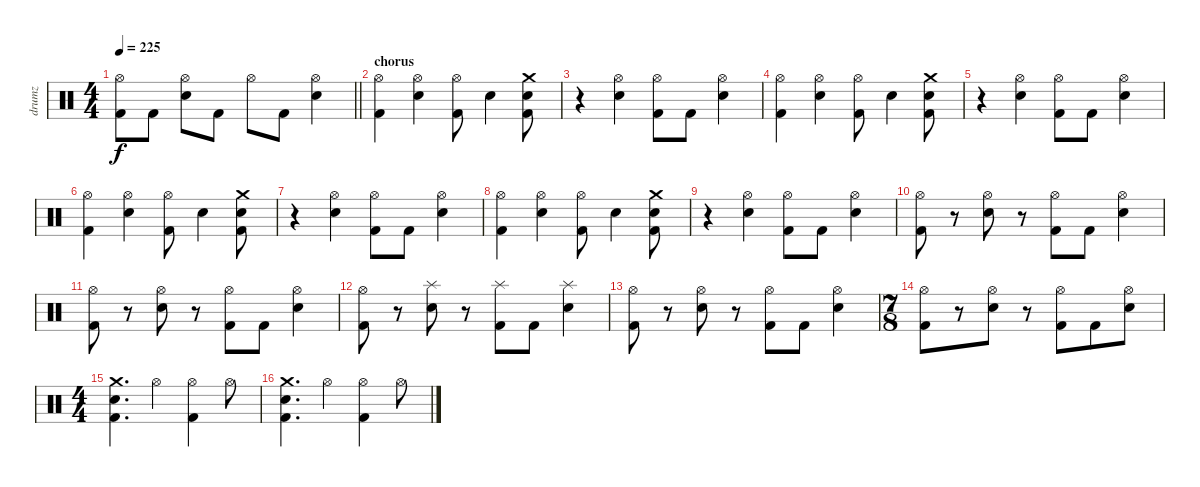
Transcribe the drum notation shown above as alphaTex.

\track ("drumz" "drumz") {instrument percussion}
\staff {score}
\articulation defaults
\ts (4 4)
\tempo 225
\clef neutral
\barLineRight lightlight
\ks c
("Hi-Hat (open)" "Kick (hit) 2").8{dy f} "Kick (hit) 2".8 ("Hi-Hat (open)" "Electric Snare (hit)").8 "Kick (hit) 2".8 "Hi-Hat (open)".8 "Kick (hit) 2".8 ("Hi-Hat (open)" "Electric Snare (hit)").4 |
\section ("" "chorus")
("Hi-Hat (open)" "Kick (hit) 2").4 ("Hi-Hat (open)" "Electric Snare (hit)").4 ("Hi-Hat (open)" "Kick (hit) 2").8 "Electric Snare (hit)".4 ("Crash medium (hit)" "Electric Snare (hit)" "Kick (hit) 2").8 |
r.4 ("Hi-Hat (open)" "Electric Snare (hit)").4 ("Hi-Hat (open)" "Kick (hit) 2").8 "Kick (hit) 2".8 ("Hi-Hat (open)" "Electric Snare (hit)").4 |
("Hi-Hat (open)" "Kick (hit) 2").4 ("Hi-Hat (open)" "Electric Snare (hit)").4 ("Hi-Hat (open)" "Kick (hit) 2").8 "Electric Snare (hit)".4 ("Crash medium (hit)" "Electric Snare (hit)" "Kick (hit) 2").8 |
r.4 ("Hi-Hat (open)" "Electric Snare (hit)").4 ("Hi-Hat (open)" "Kick (hit) 2").8 "Kick (hit) 2".8 ("Hi-Hat (open)" "Electric Snare (hit)").4 |
("Hi-Hat (open)" "Kick (hit) 2").4 ("Hi-Hat (open)" "Electric Snare (hit)").4 ("Hi-Hat (open)" "Kick (hit) 2").8 "Electric Snare (hit)".4 ("Crash medium (hit)" "Electric Snare (hit)" "Kick (hit) 2").8 |
r.4 ("Hi-Hat (open)" "Electric Snare (hit)").4 ("Hi-Hat (open)" "Kick (hit) 2").8 "Kick (hit) 2".8 ("Hi-Hat (open)" "Electric Snare (hit)").4 |
("Hi-Hat (open)" "Kick (hit) 2").4 ("Hi-Hat (open)" "Electric Snare (hit)").4 ("Hi-Hat (open)" "Kick (hit) 2").8 "Electric Snare (hit)".4 ("Crash medium (hit)" "Electric Snare (hit)" "Kick (hit) 2").8 |
r.4 ("Hi-Hat (open)" "Electric Snare (hit)").4 ("Hi-Hat (open)" "Kick (hit) 2").8 "Kick (hit) 2".8 ("Hi-Hat (open)" "Electric Snare (hit)").4 |
("Hi-Hat (open)" "Kick (hit) 2").8 r.8 ("Hi-Hat (open)" "Electric Snare (hit)").8 r.8 ("Hi-Hat (open)" "Kick (hit) 2").8 "Kick (hit) 2".8 ("Hi-Hat (open)" "Electric Snare (hit)").4 |
("Hi-Hat (open)" "Kick (hit) 2").8 r.8 ("Hi-Hat (open)" "Electric Snare (hit)").8 r.8 ("Hi-Hat (open)" "Kick (hit) 2").8 "Kick (hit) 2".8 ("Hi-Hat (open)" "Electric Snare (hit)").4 |
("Hi-Hat (open)" "Kick (hit) 2").8 r.8 ("Splash (hit)" "Electric Snare (hit)").8 r.8 ("Splash (hit)" "Kick (hit) 2").8 "Kick (hit) 2".8 ("Splash (hit)" "Electric Snare (hit)").4 |
("Hi-Hat (open)" "Kick (hit) 2").8 r.8 ("Hi-Hat (open)" "Electric Snare (hit)").8 r.8 ("Hi-Hat (open)" "Kick (hit) 2").8 "Kick (hit) 2".8 ("Hi-Hat (open)" "Electric Snare (hit)").4 |
\ts (7 8)
("Hi-Hat (open)" "Kick (hit) 2").8 r.8 ("Hi-Hat (open)" "Electric Snare (hit)").8 r.8 ("Hi-Hat (open)" "Kick (hit) 2").8 "Kick (hit) 2".8 ("Hi-Hat (open)" "Electric Snare (hit)").8 |
\ts (4 4)
("Crash medium (hit)" "Electric Snare (hit)" "Kick (hit) 2").4{d} "Hi-Hat (open)".4 ("Hi-Hat (open)" "Kick (hit) 2").4 "Hi-Hat (open)".8 |
("Crash medium (hit)" "Electric Snare (hit)" "Kick (hit) 2").4{d} "Hi-Hat (open)".4 ("Hi-Hat (open)" "Kick (hit) 2").4 "Hi-Hat (open)".8
